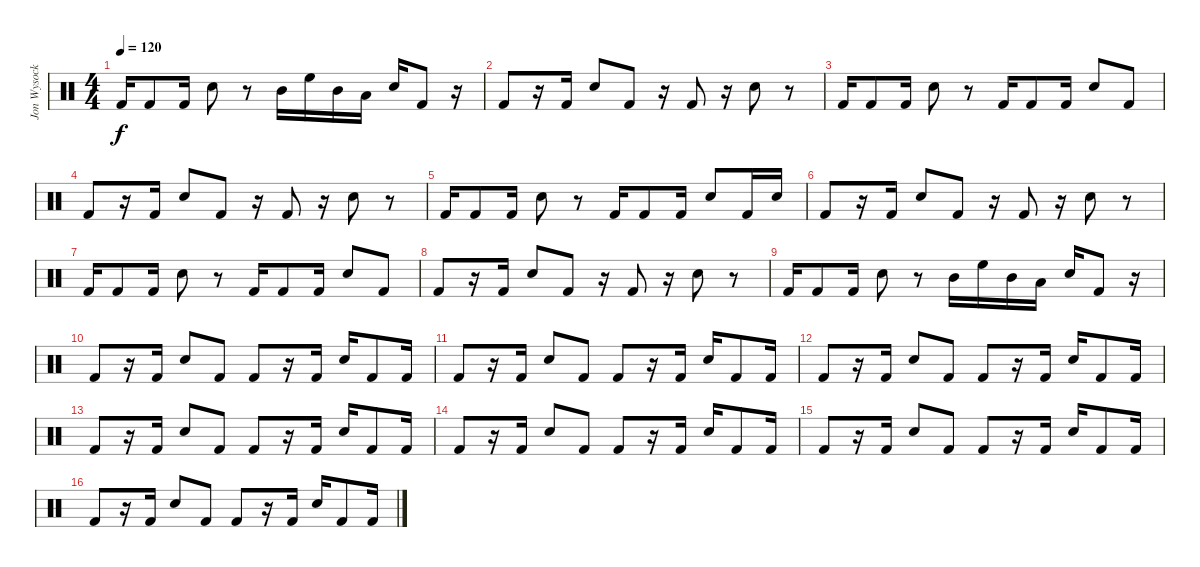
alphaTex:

\track ("Jon Wysocki" "Jon Wysock") {instrument percussion}
\staff {score}
\articulation defaults
\ts (4 4)
\tempo 120
\clef neutral
\ks c "Kick (hit) 2".16{dy f} "Kick (hit) 2".8 "Kick (hit) 2".16 "Electric Snare (hit)".8
r.8 "Mid Tom (hit)".16 "High Floor Tom (hit)".16 "Mid Tom (hit)".16 "Low Tom (hit)".16 "Electric Snare (hit)".16 "Kick (hit) 2".8 r.16 |
"Kick (hit) 2".8 r.16 "Kick (hit) 2".16 "Electric Snare (hit)".8 "Kick (hit) 2".8 r.16 "Kick (hit) 2".8 r.16 "Electric Snare (hit)".8 r.8 |
"Kick (hit) 2".16 "Kick (hit) 2".8 "Kick (hit) 2".16 "Electric Snare (hit)".8 r.8 "Kick (hit) 2".16 "Kick (hit) 2".8 "Kick (hit) 2".16 "Electric Snare (hit)".8 "Kick (hit) 2".8 |
"Kick (hit) 2".8 r.16 "Kick (hit) 2".16 "Electric Snare (hit)".8 "Kick (hit) 2".8 r.16 "Kick (hit) 2".8 r.16 "Electric Snare (hit)".8 r.8 |
"Kick (hit) 2".16 "Kick (hit) 2".8 "Kick (hit) 2".16 "Electric Snare (hit)".8 r.8 "Kick (hit) 2".16 "Kick (hit) 2".8 "Kick (hit) 2".16 "Electric Snare (hit)".8 "Kick (hit) 2".16 "Electric Snare (hit)".16 |
"Kick (hit) 2".8 r.16 "Kick (hit) 2".16 "Electric Snare (hit)".8 "Kick (hit) 2".8 r.16 "Kick (hit) 2".8 r.16 "Electric Snare (hit)".8 r.8 |
"Kick (hit) 2".16 "Kick (hit) 2".8 "Kick (hit) 2".16 "Electric Snare (hit)".8 r.8 "Kick (hit) 2".16 "Kick (hit) 2".8 "Kick (hit) 2".16 "Electric Snare (hit)".8 "Kick (hit) 2".8 |
"Kick (hit) 2".8 r.16 "Kick (hit) 2".16 "Electric Snare (hit)".8 "Kick (hit) 2".8 r.16 "Kick (hit) 2".8 r.16 "Electric Snare (hit)".8 r.8 |
"Kick (hit) 2".16 "Kick (hit) 2".8 "Kick (hit) 2".16 "Electric Snare (hit)".8 r.8 "Mid Tom (hit)".16 "High Floor Tom (hit)".16 "Mid Tom (hit)".16 "Low Tom (hit)".16 "Electric Snare (hit)".16 "Kick (hit) 2".8 r.16 |
"Kick (hit) 2".8 r.16 "Kick (hit) 2".16 "Electric Snare (hit)".8 "Kick (hit) 2".8 "Kick (hit) 2".8 r.16 "Kick (hit) 2".16 "Electric Snare (hit)".16 "Kick (hit) 2".8 "Kick (hit) 2".16 |
"Kick (hit) 2".8 r.16 "Kick (hit) 2".16 "Electric Snare (hit)".8 "Kick (hit) 2".8 "Kick (hit) 2".8 r.16 "Kick (hit) 2".16 "Electric Snare (hit)".16 "Kick (hit) 2".8 "Kick (hit) 2".16 |
"Kick (hit) 2".8 r.16 "Kick (hit) 2".16 "Electric Snare (hit)".8 "Kick (hit) 2".8 "Kick (hit) 2".8 r.16 "Kick (hit) 2".16 "Electric Snare (hit)".16 "Kick (hit) 2".8 "Kick (hit) 2".16 |
"Kick (hit) 2".8 r.16 "Kick (hit) 2".16 "Electric Snare (hit)".8 "Kick (hit) 2".8 "Kick (hit) 2".8 r.16 "Kick (hit) 2".16 "Electric Snare (hit)".16 "Kick (hit) 2".8 "Kick (hit) 2".16 |
"Kick (hit) 2".8 r.16 "Kick (hit) 2".16 "Electric Snare (hit)".8 "Kick (hit) 2".8 "Kick (hit) 2".8 r.16 "Kick (hit) 2".16 "Electric Snare (hit)".16 "Kick (hit) 2".8 "Kick (hit) 2".16 |
"Kick (hit) 2".8 r.16 "Kick (hit) 2".16 "Electric Snare (hit)".8 "Kick (hit) 2".8 "Kick (hit) 2".8 r.16 "Kick (hit) 2".16 "Electric Snare (hit)".16 "Kick (hit) 2".8 "Kick (hit) 2".16 |
"Kick (hit) 2".8 r.16 "Kick (hit) 2".16 "Electric Snare (hit)".8 "Kick (hit) 2".8 "Kick (hit) 2".8 r.16 "Kick (hit) 2".16 "Electric Snare (hit)".16 "Kick (hit) 2".8 "Kick (hit) 2".16
